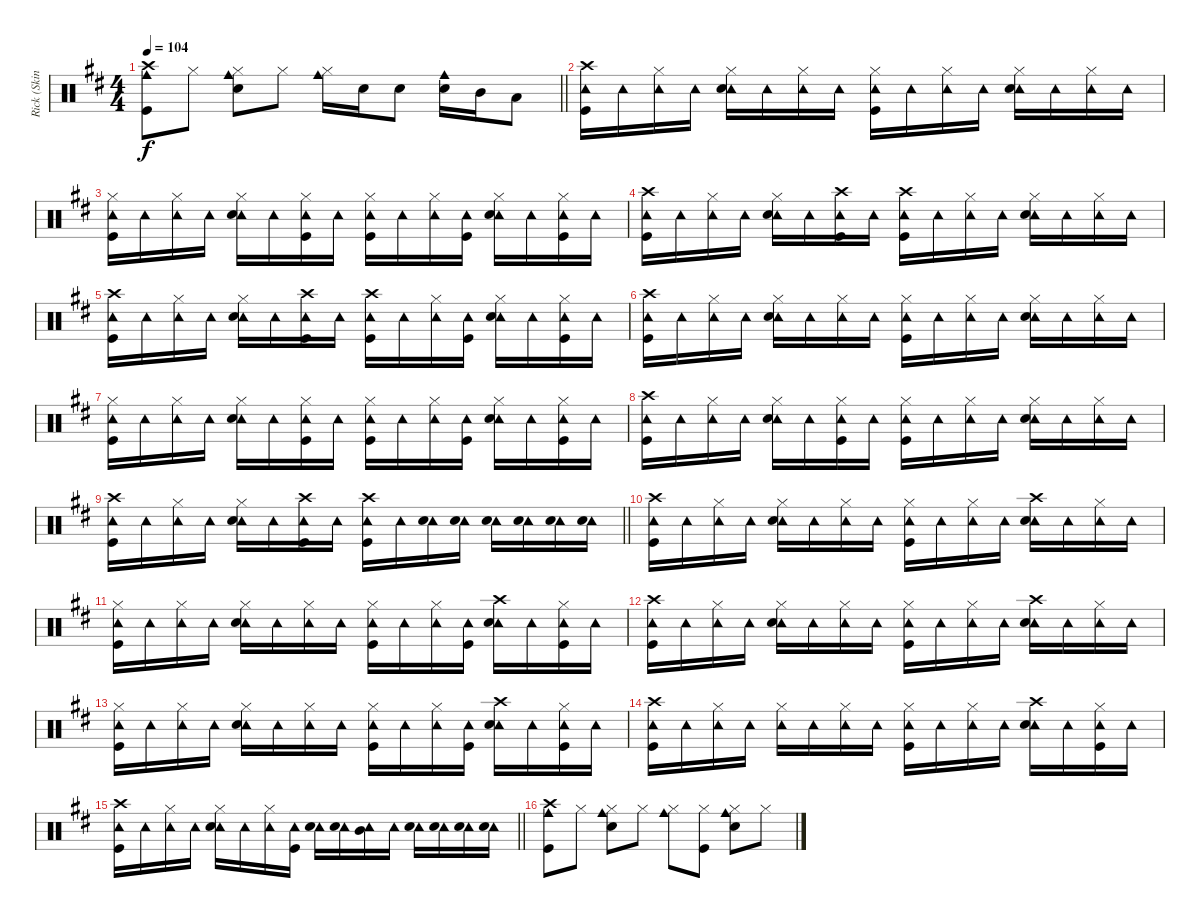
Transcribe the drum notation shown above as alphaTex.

\track ("Rick (Skins)" "Rick (Skin") {instrument percussion}
\staff {score}
\articulation defaults
\ts (4 4)
\tempo 104
\clef neutral
\barLineRight lightlight
\ks d
("Cowbell medium (hit)" "Crash high (hit)" "Kick (hit)").8{dy f} "Hi-Hat (closed)".8 ("Cowbell medium (hit)" "Hi-Hat (closed)" "Snare (hit) 2").8 "Hi-Hat (closed)".8 ("Cowbell medium (hit)" "Hi-Hat (closed)").16 "Snare (hit) 2".16 "Snare (hit) 2".8 ("Cowbell medium (hit)" "Snare (hit) 2").16 "Mid Tom (hit)".16 "Low Tom (hit)".8 |
("Tambourine (hit)" "Crash high (hit)" "Kick (hit)").16 "Tambourine (hit)".16 ("Tambourine (hit)" "Hi-Hat (closed)").16 "Tambourine (hit)".16 ("Tambourine (hit)" "Hi-Hat (closed)" "Snare (hit) 2").16 "Tambourine (hit)".16 ("Tambourine (hit)" "Hi-Hat (closed)").16 "Tambourine (hit)".16 ("Tambourine (hit)" "Hi-Hat (closed)" "Kick (hit)").16 "Tambourine (hit)".16 ("Tambourine (hit)" "Hi-Hat (closed)").16 "Tambourine (hit)".16 ("Tambourine (hit)" "Hi-Hat (closed)" "Snare (hit) 2").16 "Tambourine (hit)".16 ("Tambourine (hit)" "Hi-Hat (closed)").16 "Tambourine (hit)".16 |
("Tambourine (hit)" "Hi-Hat (closed)" "Kick (hit)").16 "Tambourine (hit)".16 ("Tambourine (hit)" "Hi-Hat (closed)").16 "Tambourine (hit)".16 ("Tambourine (hit)" "Hi-Hat (closed)" "Snare (hit) 2").16 "Tambourine (hit)".16 ("Tambourine (hit)" "Hi-Hat (closed)" "Kick (hit)").16 "Tambourine (hit)".16 ("Tambourine (hit)" "Hi-Hat (closed)" "Kick (hit)").16 "Tambourine (hit)".16 ("Tambourine (hit)" "Hi-Hat (closed)").16 ("Tambourine (hit)" "Kick (hit)").16 ("Tambourine (hit)" "Hi-Hat (closed)" "Snare (hit) 2").16 "Tambourine (hit)".16 ("Tambourine (hit)" "Hi-Hat (closed)" "Kick (hit)").16 "Tambourine (hit)".16 |
("Tambourine (hit)" "Crash high (hit)" "Kick (hit)").16 "Tambourine (hit)".16 ("Tambourine (hit)" "Hi-Hat (closed)").16 "Tambourine (hit)".16 ("Tambourine (hit)" "Hi-Hat (closed)" "Snare (hit) 2").16 "Tambourine (hit)".16 ("Tambourine (hit)" "Crash high (hit)" "Kick (hit)").16 "Tambourine (hit)".16 ("Tambourine (hit)" "Crash high (hit)" "Kick (hit)").16 "Tambourine (hit)".16 ("Tambourine (hit)" "Hi-Hat (closed)").16 "Tambourine (hit)".16 ("Tambourine (hit)" "Hi-Hat (closed)" "Snare (hit) 2").16 "Tambourine (hit)".16 ("Tambourine (hit)" "Hi-Hat (closed)").16 "Tambourine (hit)".16 |
("Tambourine (hit)" "Crash high (hit)" "Kick (hit)").16 "Tambourine (hit)".16 ("Tambourine (hit)" "Hi-Hat (closed)").16 "Tambourine (hit)".16 ("Tambourine (hit)" "Hi-Hat (closed)" "Snare (hit) 2").16 "Tambourine (hit)".16 ("Tambourine (hit)" "Crash high (hit)" "Kick (hit)").16 "Tambourine (hit)".16 ("Tambourine (hit)" "Crash high (hit)" "Kick (hit)").16 "Tambourine (hit)".16 ("Tambourine (hit)" "Hi-Hat (closed)").16 ("Tambourine (hit)" "Kick (hit)").16 ("Tambourine (hit)" "Hi-Hat (closed)" "Snare (hit) 2").16 "Tambourine (hit)".16 ("Tambourine (hit)" "Hi-Hat (closed)" "Kick (hit)").16 "Tambourine (hit)".16 |
("Tambourine (hit)" "Crash high (hit)" "Kick (hit)").16 "Tambourine (hit)".16 ("Tambourine (hit)" "Hi-Hat (closed)").16 "Tambourine (hit)".16 ("Tambourine (hit)" "Hi-Hat (closed)" "Snare (hit) 2").16 "Tambourine (hit)".16 ("Tambourine (hit)" "Hi-Hat (closed)").16 "Tambourine (hit)".16 ("Tambourine (hit)" "Hi-Hat (closed)" "Kick (hit)").16 "Tambourine (hit)".16 ("Tambourine (hit)" "Hi-Hat (closed)").16 "Tambourine (hit)".16 ("Tambourine (hit)" "Hi-Hat (closed)" "Snare (hit) 2").16 "Tambourine (hit)".16 ("Tambourine (hit)" "Hi-Hat (closed)").16 "Tambourine (hit)".16 |
("Tambourine (hit)" "Hi-Hat (closed)" "Kick (hit)").16 "Tambourine (hit)".16 ("Tambourine (hit)" "Hi-Hat (closed)").16 "Tambourine (hit)".16 ("Tambourine (hit)" "Hi-Hat (closed)" "Snare (hit) 2").16 "Tambourine (hit)".16 ("Tambourine (hit)" "Hi-Hat (closed)" "Kick (hit)").16 "Tambourine (hit)".16 ("Tambourine (hit)" "Hi-Hat (closed)" "Kick (hit)").16 "Tambourine (hit)".16 ("Tambourine (hit)" "Hi-Hat (closed)").16 ("Tambourine (hit)" "Kick (hit)").16 ("Tambourine (hit)" "Hi-Hat (closed)" "Snare (hit) 2").16 "Tambourine (hit)".16 ("Tambourine (hit)" "Hi-Hat (closed)" "Kick (hit)").16 "Tambourine (hit)".16 |
("Tambourine (hit)" "Crash high (hit)" "Kick (hit)").16 "Tambourine (hit)".16 ("Tambourine (hit)" "Hi-Hat (closed)").16 "Tambourine (hit)".16 ("Tambourine (hit)" "Hi-Hat (closed)" "Snare (hit) 2").16 "Tambourine (hit)".16 ("Tambourine (hit)" "Hi-Hat (closed)" "Kick (hit)").16 "Tambourine (hit)".16 ("Tambourine (hit)" "Hi-Hat (closed)" "Kick (hit)").16 "Tambourine (hit)".16 ("Tambourine (hit)" "Hi-Hat (closed)").16 "Tambourine (hit)".16 ("Tambourine (hit)" "Hi-Hat (closed)" "Snare (hit) 2").16 "Tambourine (hit)".16 ("Tambourine (hit)" "Hi-Hat (closed)").16 "Tambourine (hit)".16 |
\barLineRight lightlight
("Tambourine (hit)" "Crash high (hit)" "Kick (hit)").16 "Tambourine (hit)".16 ("Tambourine (hit)" "Hi-Hat (closed)").16 "Tambourine (hit)".16 ("Tambourine (hit)" "Hi-Hat (closed)" "Snare (hit) 2").16 "Tambourine (hit)".16 ("Tambourine (hit)" "Crash high (hit)" "Kick (hit)").16 "Tambourine (hit)".16 ("Tambourine (hit)" "Crash high (hit)" "Kick (hit)").16 "Tambourine (hit)".16 ("Tambourine (hit)" "Snare (hit) 2").16 ("Tambourine (hit)" "Snare (hit) 2").16 ("Tambourine (hit)" "Snare (hit) 2").16 ("Tambourine (hit)" "Snare (hit) 2").16 ("Tambourine (hit)" "Snare (hit) 2").16 ("Tambourine (hit)" "Snare (hit) 2").16 |
("Tambourine (hit)" "Crash high (hit)" "Kick (hit)").16 "Tambourine (hit)".16 ("Tambourine (hit)" "Hi-Hat (closed)").16 "Tambourine (hit)".16 ("Tambourine (hit)" "Hi-Hat (closed)" "Snare (hit) 2").16 "Tambourine (hit)".16 ("Tambourine (hit)" "Hi-Hat (closed)").16 "Tambourine (hit)".16 ("Tambourine (hit)" "Hi-Hat (closed)" "Kick (hit)").16 "Tambourine (hit)".16 ("Tambourine (hit)" "Hi-Hat (closed)").16 "Tambourine (hit)".16 ("Tambourine (hit)" "Crash high (hit)" "Snare (hit) 2").16 "Tambourine (hit)".16 ("Tambourine (hit)" "Hi-Hat (closed)").16 "Tambourine (hit)".16 |
("Tambourine (hit)" "Hi-Hat (closed)" "Kick (hit)").16 "Tambourine (hit)".16 ("Tambourine (hit)" "Hi-Hat (closed)").16 "Tambourine (hit)".16 ("Tambourine (hit)" "Hi-Hat (closed)" "Snare (hit) 2").16 "Tambourine (hit)".16 ("Tambourine (hit)" "Hi-Hat (closed)").16 "Tambourine (hit)".16 ("Tambourine (hit)" "Hi-Hat (closed)" "Kick (hit)").16 "Tambourine (hit)".16 ("Tambourine (hit)" "Hi-Hat (closed)").16 ("Tambourine (hit)" "Kick (hit)").16 ("Tambourine (hit)" "Crash high (hit)" "Snare (hit) 2").16 "Tambourine (hit)".16 ("Tambourine (hit)" "Hi-Hat (closed)" "Kick (hit)").16 "Tambourine (hit)".16 |
("Tambourine (hit)" "Crash high (hit)" "Kick (hit)").16 "Tambourine (hit)".16 ("Tambourine (hit)" "Hi-Hat (closed)").16 "Tambourine (hit)".16 ("Tambourine (hit)" "Hi-Hat (closed)" "Snare (hit) 2").16 "Tambourine (hit)".16 ("Tambourine (hit)" "Hi-Hat (closed)").16 "Tambourine (hit)".16 ("Tambourine (hit)" "Hi-Hat (closed)" "Kick (hit)").16 "Tambourine (hit)".16 ("Tambourine (hit)" "Hi-Hat (closed)").16 "Tambourine (hit)".16 ("Tambourine (hit)" "Crash high (hit)" "Snare (hit) 2").16 "Tambourine (hit)".16 ("Tambourine (hit)" "Hi-Hat (closed)").16 "Tambourine (hit)".16 |
("Tambourine (hit)" "Hi-Hat (closed)" "Kick (hit)").16 "Tambourine (hit)".16 ("Tambourine (hit)" "Hi-Hat (closed)").16 "Tambourine (hit)".16 ("Tambourine (hit)" "Hi-Hat (closed)" "Snare (hit) 2").16 "Tambourine (hit)".16 ("Tambourine (hit)" "Hi-Hat (closed)").16 "Tambourine (hit)".16 ("Tambourine (hit)" "Hi-Hat (closed)" "Kick (hit)").16 "Tambourine (hit)".16 ("Tambourine (hit)" "Hi-Hat (closed)").16 ("Tambourine (hit)" "Kick (hit)").16 ("Tambourine (hit)" "Crash high (hit)" "Snare (hit) 2").16 "Tambourine (hit)".16 ("Tambourine (hit)" "Hi-Hat (closed)" "Kick (hit)").16 "Tambourine (hit)".16 |
("Tambourine (hit)" "Crash high (hit)" "Kick (hit)").16 "Tambourine (hit)".16 ("Tambourine (hit)" "Hi-Hat (closed)").16 "Tambourine (hit)".16 ("Tambourine (hit)" "Hi-Hat (closed)").16 "Tambourine (hit)".16 ("Tambourine (hit)" "Hi-Hat (closed)").16 "Tambourine (hit)".16 ("Tambourine (hit)" "Hi-Hat (closed)" "Kick (hit)").16 "Tambourine (hit)".16 ("Tambourine (hit)" "Hi-Hat (closed)").16 "Tambourine (hit)".16 ("Tambourine (hit)" "Crash high (hit)" "Snare (hit) 2").16 "Tambourine (hit)".16 ("Tambourine (hit)" "Hi-Hat (closed)" "Kick (hit)").16 "Tambourine (hit)".16 |
\barLineRight lightlight
("Tambourine (hit)" "Crash high (hit)" "Kick (hit)").16 "Tambourine (hit)".16 ("Tambourine (hit)" "Hi-Hat (closed)").16 "Tambourine (hit)".16 ("Tambourine (hit)" "Hi-Hat (closed)" "Snare (hit) 2").16 "Tambourine (hit)".16 ("Tambourine (hit)" "Hi-Hat (closed)").16 ("Tambourine (hit)" "Kick (hit)").16 ("Tambourine (hit)" "Snare (hit) 2").16 ("Tambourine (hit)" "Snare (hit) 2").16 ("Tambourine (hit)" "Mid Tom (hit)").16 "Tambourine (hit)".16 ("Tambourine (hit)" "Snare (hit) 2").16 ("Tambourine (hit)" "Snare (hit) 2").16 ("Tambourine (hit)" "Snare (hit) 2").16 ("Tambourine (hit)" "Snare (hit) 2").16 |
("Cowbell medium (hit)" "Crash high (hit)" "Kick (hit)").8 "Hi-Hat (closed)".8 ("Cowbell medium (hit)" "Hi-Hat (closed)" "Snare (hit) 2").8 "Hi-Hat (closed)".8 ("Cowbell medium (hit)" "Hi-Hat (closed)").8 ("Hi-Hat (closed)" "Kick (hit)").8 ("Cowbell medium (hit)" "Hi-Hat (closed)" "Snare (hit) 2").8 "Hi-Hat (closed)".8
